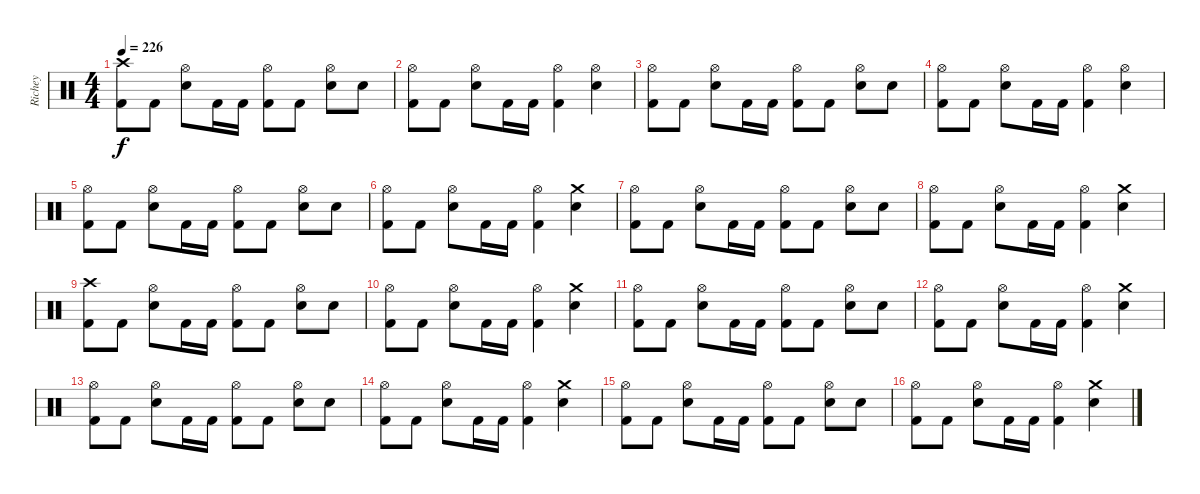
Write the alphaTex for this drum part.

\track ("Richey" "Richey") {instrument percussion}
\staff {score}
\articulation defaults
\ts (4 4)
\tempo 226
\clef neutral
\ks c
("Crash high (hit)" "Kick (hit) 2").8{dy f} "Kick (hit) 2".8 ("Hi-Hat (open)" "Snare (hit) 2").8 "Kick (hit) 2".16 "Kick (hit) 2".16 ("Hi-Hat (open)" "Kick (hit) 2").8 "Kick (hit) 2".8 ("Hi-Hat (open)" "Snare (hit) 2").8 "Snare (hit) 2".8 |
("Hi-Hat (open)" "Kick (hit) 2").8 "Kick (hit) 2".8 ("Hi-Hat (open)" "Snare (hit) 2").8 "Kick (hit) 2".16 "Kick (hit) 2".16 ("Hi-Hat (open)" "Kick (hit) 2").4 ("Hi-Hat (open)" "Snare (hit) 2").4 |
("Hi-Hat (open)" "Kick (hit) 2").8 "Kick (hit) 2".8 ("Hi-Hat (open)" "Snare (hit) 2").8 "Kick (hit) 2".16 "Kick (hit) 2".16 ("Hi-Hat (open)" "Kick (hit) 2").8 "Kick (hit) 2".8 ("Hi-Hat (open)" "Snare (hit) 2").8 "Snare (hit) 2".8 |
("Hi-Hat (open)" "Kick (hit) 2").8 "Kick (hit) 2".8 ("Hi-Hat (open)" "Snare (hit) 2").8 "Kick (hit) 2".16 "Kick (hit) 2".16 ("Hi-Hat (open)" "Kick (hit) 2").4 ("Hi-Hat (open)" "Snare (hit) 2").4 |
("Hi-Hat (open)" "Kick (hit) 2").8 "Kick (hit) 2".8 ("Hi-Hat (open)" "Snare (hit) 2").8 "Kick (hit) 2".16 "Kick (hit) 2".16 ("Hi-Hat (open)" "Kick (hit) 2").8 "Kick (hit) 2".8 ("Hi-Hat (open)" "Snare (hit) 2").8 "Snare (hit) 2".8 |
("Hi-Hat (open)" "Kick (hit) 2").8 "Kick (hit) 2".8 ("Hi-Hat (open)" "Snare (hit) 2").8 "Kick (hit) 2".16 "Kick (hit) 2".16 ("Hi-Hat (open)" "Kick (hit) 2").4 ("Crash medium (hit)" "Snare (hit) 2").4 |
("Hi-Hat (open)" "Kick (hit) 2").8 "Kick (hit) 2".8 ("Hi-Hat (open)" "Snare (hit) 2").8 "Kick (hit) 2".16 "Kick (hit) 2".16 ("Hi-Hat (open)" "Kick (hit) 2").8 "Kick (hit) 2".8 ("Hi-Hat (open)" "Snare (hit) 2").8 "Snare (hit) 2".8 |
("Hi-Hat (open)" "Kick (hit) 2").8 "Kick (hit) 2".8 ("Hi-Hat (open)" "Snare (hit) 2").8 "Kick (hit) 2".16 "Kick (hit) 2".16 ("Hi-Hat (open)" "Kick (hit) 2").4 ("Crash medium (hit)" "Snare (hit) 2").4 |
("Crash high (hit)" "Kick (hit) 2").8 "Kick (hit) 2".8 ("Hi-Hat (open)" "Snare (hit) 2").8 "Kick (hit) 2".16 "Kick (hit) 2".16 ("Hi-Hat (open)" "Kick (hit) 2").8 "Kick (hit) 2".8 ("Hi-Hat (open)" "Snare (hit) 2").8 "Snare (hit) 2".8 |
("Hi-Hat (open)" "Kick (hit) 2").8 "Kick (hit) 2".8 ("Hi-Hat (open)" "Snare (hit) 2").8 "Kick (hit) 2".16 "Kick (hit) 2".16 ("Hi-Hat (open)" "Kick (hit) 2").4 ("Crash medium (hit)" "Snare (hit) 2").4 |
("Hi-Hat (open)" "Kick (hit) 2").8 "Kick (hit) 2".8 ("Hi-Hat (open)" "Snare (hit) 2").8 "Kick (hit) 2".16 "Kick (hit) 2".16 ("Hi-Hat (open)" "Kick (hit) 2").8 "Kick (hit) 2".8 ("Hi-Hat (open)" "Snare (hit) 2").8 "Snare (hit) 2".8 |
("Hi-Hat (open)" "Kick (hit) 2").8 "Kick (hit) 2".8 ("Hi-Hat (open)" "Snare (hit) 2").8 "Kick (hit) 2".16 "Kick (hit) 2".16 ("Hi-Hat (open)" "Kick (hit) 2").4 ("Crash medium (hit)" "Snare (hit) 2").4 |
("Hi-Hat (open)" "Kick (hit) 2").8 "Kick (hit) 2".8 ("Hi-Hat (open)" "Snare (hit) 2").8 "Kick (hit) 2".16 "Kick (hit) 2".16 ("Hi-Hat (open)" "Kick (hit) 2").8 "Kick (hit) 2".8 ("Hi-Hat (open)" "Snare (hit) 2").8 "Snare (hit) 2".8 |
("Hi-Hat (open)" "Kick (hit) 2").8 "Kick (hit) 2".8 ("Hi-Hat (open)" "Snare (hit) 2").8 "Kick (hit) 2".16 "Kick (hit) 2".16 ("Hi-Hat (open)" "Kick (hit) 2").4 ("Crash medium (hit)" "Snare (hit) 2").4 |
("Hi-Hat (open)" "Kick (hit) 2").8 "Kick (hit) 2".8 ("Hi-Hat (open)" "Snare (hit) 2").8 "Kick (hit) 2".16 "Kick (hit) 2".16 ("Hi-Hat (open)" "Kick (hit) 2").8 "Kick (hit) 2".8 ("Hi-Hat (open)" "Snare (hit) 2").8 "Snare (hit) 2".8 |
("Hi-Hat (open)" "Kick (hit) 2").8 "Kick (hit) 2".8 ("Hi-Hat (open)" "Snare (hit) 2").8 "Kick (hit) 2".16 "Kick (hit) 2".16 ("Hi-Hat (open)" "Kick (hit) 2").4 ("Crash medium (hit)" "Snare (hit) 2").4
